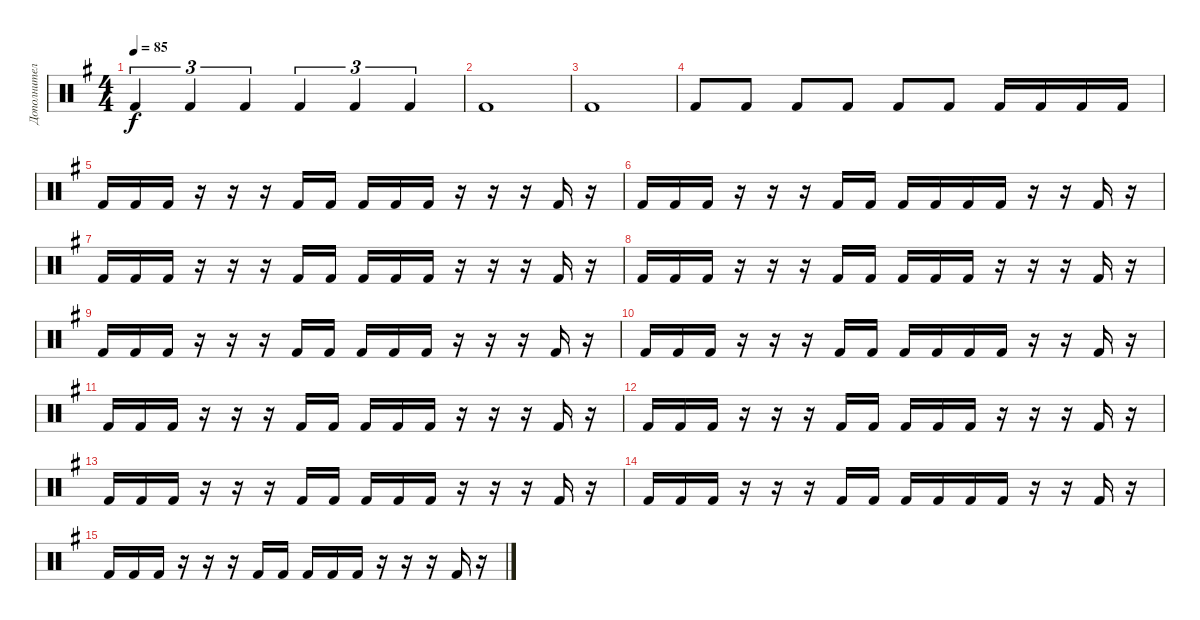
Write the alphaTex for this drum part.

\track ("Дополнительно" "Дополнител") {instrument percussion}
\staff {score}
\articulation defaults
\ts (4 4)
\tempo 85
\clef neutral
\ks eminor "Kick (hit) 2".4{tu (3 2) dy f} "Kick (hit) 2".4{tu (3 2)} "Kick (hit) 2".4{tu (3 2)} "Kick (hit) 2".4{tu (3 2)} "Kick (hit) 2".4{tu (3 2)} "Kick (hit) 2".4{tu (3 2)}
|
"Kick (hit) 2".1 |
"Kick (hit) 2".1 |
"Kick (hit) 2".8 "Kick (hit) 2".8 "Kick (hit) 2".8 "Kick (hit) 2".8 "Kick (hit) 2".8 "Kick (hit) 2".8 "Kick (hit) 2".16 "Kick (hit) 2".16 "Kick (hit) 2".16 "Kick (hit) 2".16 |
"Kick (hit) 2".16 "Kick (hit) 2".16 "Kick (hit) 2".16 r.16 r.16 r.16 "Kick (hit) 2".16 "Kick (hit) 2".16 "Kick (hit) 2".16 "Kick (hit) 2".16 "Kick (hit) 2".16 r.16 r.16 r.16 "Kick (hit) 2".16 r.16 |
"Kick (hit) 2".16 "Kick (hit) 2".16 "Kick (hit) 2".16 r.16 r.16 r.16 "Kick (hit) 2".16 "Kick (hit) 2".16 "Kick (hit) 2".16 "Kick (hit) 2".16 "Kick (hit) 2".16 "Kick (hit) 2".16 r.16 r.16 "Kick (hit) 2".16 r.16 |
"Kick (hit) 2".16 "Kick (hit) 2".16 "Kick (hit) 2".16 r.16 r.16 r.16 "Kick (hit) 2".16 "Kick (hit) 2".16 "Kick (hit) 2".16 "Kick (hit) 2".16 "Kick (hit) 2".16 r.16 r.16 r.16 "Kick (hit) 2".16 r.16 |
"Kick (hit) 2".16 "Kick (hit) 2".16 "Kick (hit) 2".16 r.16 r.16 r.16 "Kick (hit) 2".16 "Kick (hit) 2".16 "Kick (hit) 2".16 "Kick (hit) 2".16 "Kick (hit) 2".16 r.16 r.16 r.16 "Kick (hit) 2".16 r.16 |
"Kick (hit) 2".16 "Kick (hit) 2".16 "Kick (hit) 2".16 r.16 r.16 r.16 "Kick (hit) 2".16 "Kick (hit) 2".16 "Kick (hit) 2".16 "Kick (hit) 2".16 "Kick (hit) 2".16 r.16 r.16 r.16 "Kick (hit) 2".16 r.16 |
"Kick (hit) 2".16 "Kick (hit) 2".16 "Kick (hit) 2".16 r.16 r.16 r.16 "Kick (hit) 2".16 "Kick (hit) 2".16 "Kick (hit) 2".16 "Kick (hit) 2".16 "Kick (hit) 2".16 "Kick (hit) 2".16 r.16 r.16 "Kick (hit) 2".16 r.16 |
"Kick (hit) 2".16 "Kick (hit) 2".16 "Kick (hit) 2".16 r.16 r.16 r.16 "Kick (hit) 2".16 "Kick (hit) 2".16 "Kick (hit) 2".16 "Kick (hit) 2".16 "Kick (hit) 2".16 r.16 r.16 r.16 "Kick (hit) 2".16 r.16 |
"Kick (hit) 2".16 "Kick (hit) 2".16 "Kick (hit) 2".16 r.16 r.16 r.16 "Kick (hit) 2".16 "Kick (hit) 2".16 "Kick (hit) 2".16 "Kick (hit) 2".16 "Kick (hit) 2".16 r.16 r.16 r.16 "Kick (hit) 2".16 r.16 |
"Kick (hit) 2".16 "Kick (hit) 2".16 "Kick (hit) 2".16 r.16 r.16 r.16 "Kick (hit) 2".16 "Kick (hit) 2".16 "Kick (hit) 2".16 "Kick (hit) 2".16 "Kick (hit) 2".16 r.16 r.16 r.16 "Kick (hit) 2".16 r.16 |
"Kick (hit) 2".16 "Kick (hit) 2".16 "Kick (hit) 2".16 r.16 r.16 r.16 "Kick (hit) 2".16 "Kick (hit) 2".16 "Kick (hit) 2".16 "Kick (hit) 2".16 "Kick (hit) 2".16 "Kick (hit) 2".16 r.16 r.16 "Kick (hit) 2".16 r.16 |
"Kick (hit) 2".16 "Kick (hit) 2".16 "Kick (hit) 2".16 r.16 r.16 r.16 "Kick (hit) 2".16 "Kick (hit) 2".16 "Kick (hit) 2".16 "Kick (hit) 2".16 "Kick (hit) 2".16 r.16 r.16 r.16 "Kick (hit) 2".16 r.16
